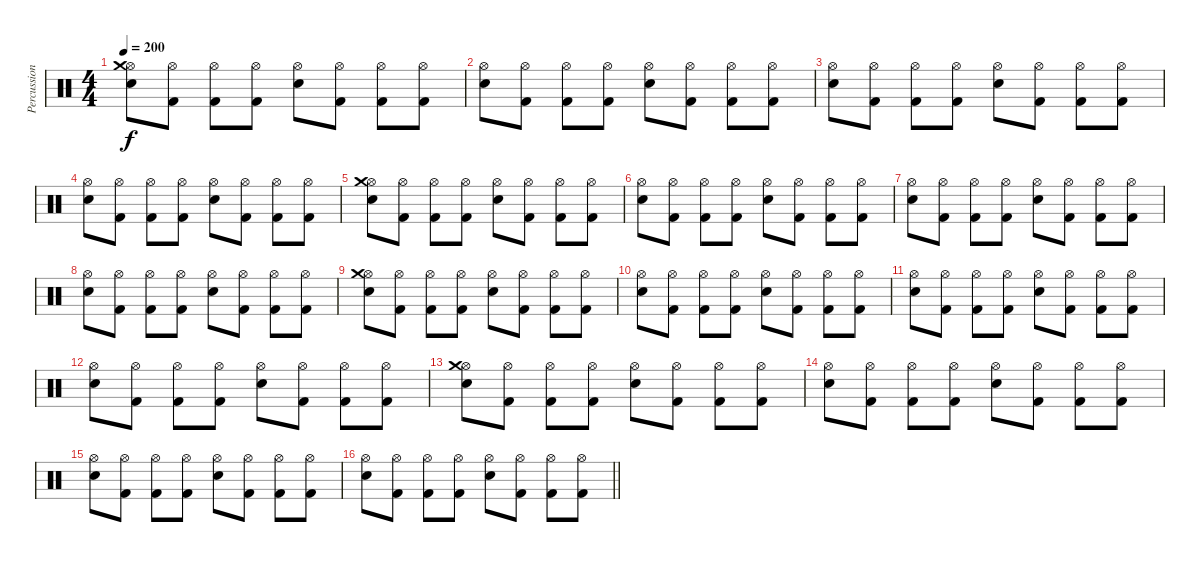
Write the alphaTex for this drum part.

\track ("Percussion" "Percussion") {instrument percussion}
\staff {score}
\articulation defaults
\ts (4 4)
\tempo 200
\clef neutral
\ks c
("Electric Snare (hit)" "Hi-Hat (open)" "Crash medium (hit)").8{dy f} ("Kick (hit) 2" "Hi-Hat (open)").8 ("Kick (hit) 2" "Hi-Hat (open)").8 ("Kick (hit) 2" "Hi-Hat (open)").8 ("Electric Snare (hit)" "Hi-Hat (open)").8 ("Kick (hit) 2" "Hi-Hat (open)").8 ("Kick (hit) 2" "Hi-Hat (open)").8 ("Kick (hit) 2" "Hi-Hat (open)").8 |
("Electric Snare (hit)" "Hi-Hat (open)").8 ("Kick (hit) 2" "Hi-Hat (open)").8 ("Kick (hit) 2" "Hi-Hat (open)").8 ("Kick (hit) 2" "Hi-Hat (open)").8 ("Electric Snare (hit)" "Hi-Hat (open)").8 ("Kick (hit) 2" "Hi-Hat (open)").8 ("Kick (hit) 2" "Hi-Hat (open)").8 ("Kick (hit) 2" "Hi-Hat (open)").8 |
("Electric Snare (hit)" "Hi-Hat (open)").8 ("Kick (hit) 2" "Hi-Hat (open)").8 ("Kick (hit) 2" "Hi-Hat (open)").8 ("Kick (hit) 2" "Hi-Hat (open)").8 ("Electric Snare (hit)" "Hi-Hat (open)").8 ("Kick (hit) 2" "Hi-Hat (open)").8 ("Kick (hit) 2" "Hi-Hat (open)").8 ("Kick (hit) 2" "Hi-Hat (open)").8 |
("Electric Snare (hit)" "Hi-Hat (open)").8 ("Kick (hit) 2" "Hi-Hat (open)").8 ("Kick (hit) 2" "Hi-Hat (open)").8 ("Kick (hit) 2" "Hi-Hat (open)").8 ("Electric Snare (hit)" "Hi-Hat (open)").8 ("Kick (hit) 2" "Hi-Hat (open)").8 ("Kick (hit) 2" "Hi-Hat (open)").8 ("Kick (hit) 2" "Hi-Hat (open)").8 |
("Electric Snare (hit)" "Hi-Hat (open)" "Crash medium (hit)").8 ("Kick (hit) 2" "Hi-Hat (open)").8 ("Kick (hit) 2" "Hi-Hat (open)").8 ("Kick (hit) 2" "Hi-Hat (open)").8 ("Electric Snare (hit)" "Hi-Hat (open)").8 ("Kick (hit) 2" "Hi-Hat (open)").8 ("Kick (hit) 2" "Hi-Hat (open)").8 ("Kick (hit) 2" "Hi-Hat (open)").8 |
("Electric Snare (hit)" "Hi-Hat (open)").8 ("Kick (hit) 2" "Hi-Hat (open)").8 ("Kick (hit) 2" "Hi-Hat (open)").8 ("Kick (hit) 2" "Hi-Hat (open)").8 ("Electric Snare (hit)" "Hi-Hat (open)").8 ("Kick (hit) 2" "Hi-Hat (open)").8 ("Kick (hit) 2" "Hi-Hat (open)").8 ("Kick (hit) 2" "Hi-Hat (open)").8 |
("Electric Snare (hit)" "Hi-Hat (open)").8 ("Kick (hit) 2" "Hi-Hat (open)").8 ("Kick (hit) 2" "Hi-Hat (open)").8 ("Kick (hit) 2" "Hi-Hat (open)").8 ("Electric Snare (hit)" "Hi-Hat (open)").8 ("Kick (hit) 2" "Hi-Hat (open)").8 ("Kick (hit) 2" "Hi-Hat (open)").8 ("Kick (hit) 2" "Hi-Hat (open)").8 |
("Electric Snare (hit)" "Hi-Hat (open)").8 ("Kick (hit) 2" "Hi-Hat (open)").8 ("Kick (hit) 2" "Hi-Hat (open)").8 ("Kick (hit) 2" "Hi-Hat (open)").8 ("Electric Snare (hit)" "Hi-Hat (open)").8 ("Kick (hit) 2" "Hi-Hat (open)").8 ("Kick (hit) 2" "Hi-Hat (open)").8 ("Kick (hit) 2" "Hi-Hat (open)").8 |
("Electric Snare (hit)" "Hi-Hat (open)" "Crash medium (hit)").8 ("Kick (hit) 2" "Hi-Hat (open)").8 ("Kick (hit) 2" "Hi-Hat (open)").8 ("Kick (hit) 2" "Hi-Hat (open)").8 ("Electric Snare (hit)" "Hi-Hat (open)").8 ("Kick (hit) 2" "Hi-Hat (open)").8 ("Kick (hit) 2" "Hi-Hat (open)").8 ("Kick (hit) 2" "Hi-Hat (open)").8 |
("Electric Snare (hit)" "Hi-Hat (open)").8 ("Kick (hit) 2" "Hi-Hat (open)").8 ("Kick (hit) 2" "Hi-Hat (open)").8 ("Kick (hit) 2" "Hi-Hat (open)").8 ("Electric Snare (hit)" "Hi-Hat (open)").8 ("Kick (hit) 2" "Hi-Hat (open)").8 ("Kick (hit) 2" "Hi-Hat (open)").8 ("Kick (hit) 2" "Hi-Hat (open)").8 |
("Electric Snare (hit)" "Hi-Hat (open)").8 ("Kick (hit) 2" "Hi-Hat (open)").8 ("Kick (hit) 2" "Hi-Hat (open)").8 ("Kick (hit) 2" "Hi-Hat (open)").8 ("Electric Snare (hit)" "Hi-Hat (open)").8 ("Kick (hit) 2" "Hi-Hat (open)").8 ("Kick (hit) 2" "Hi-Hat (open)").8 ("Kick (hit) 2" "Hi-Hat (open)").8 |
("Electric Snare (hit)" "Hi-Hat (open)").8 ("Kick (hit) 2" "Hi-Hat (open)").8 ("Kick (hit) 2" "Hi-Hat (open)").8 ("Kick (hit) 2" "Hi-Hat (open)").8 ("Electric Snare (hit)" "Hi-Hat (open)").8 ("Kick (hit) 2" "Hi-Hat (open)").8 ("Kick (hit) 2" "Hi-Hat (open)").8 ("Kick (hit) 2" "Hi-Hat (open)").8 |
("Electric Snare (hit)" "Hi-Hat (open)" "Crash medium (hit)").8 ("Kick (hit) 2" "Hi-Hat (open)").8 ("Kick (hit) 2" "Hi-Hat (open)").8 ("Kick (hit) 2" "Hi-Hat (open)").8 ("Electric Snare (hit)" "Hi-Hat (open)").8 ("Kick (hit) 2" "Hi-Hat (open)").8 ("Kick (hit) 2" "Hi-Hat (open)").8 ("Kick (hit) 2" "Hi-Hat (open)").8 |
("Electric Snare (hit)" "Hi-Hat (open)").8 ("Kick (hit) 2" "Hi-Hat (open)").8 ("Kick (hit) 2" "Hi-Hat (open)").8 ("Kick (hit) 2" "Hi-Hat (open)").8 ("Electric Snare (hit)" "Hi-Hat (open)").8 ("Kick (hit) 2" "Hi-Hat (open)").8 ("Kick (hit) 2" "Hi-Hat (open)").8 ("Kick (hit) 2" "Hi-Hat (open)").8 |
("Electric Snare (hit)" "Hi-Hat (open)").8 ("Kick (hit) 2" "Hi-Hat (open)").8 ("Kick (hit) 2" "Hi-Hat (open)").8 ("Kick (hit) 2" "Hi-Hat (open)").8 ("Electric Snare (hit)" "Hi-Hat (open)").8 ("Kick (hit) 2" "Hi-Hat (open)").8 ("Kick (hit) 2" "Hi-Hat (open)").8 ("Kick (hit) 2" "Hi-Hat (open)").8 |
\barLineRight lightlight
("Electric Snare (hit)" "Hi-Hat (open)").8 ("Kick (hit) 2" "Hi-Hat (open)").8 ("Kick (hit) 2" "Hi-Hat (open)").8 ("Kick (hit) 2" "Hi-Hat (open)").8 ("Electric Snare (hit)" "Hi-Hat (open)").8 ("Kick (hit) 2" "Hi-Hat (open)").8 ("Kick (hit) 2" "Hi-Hat (open)").8 ("Kick (hit) 2" "Hi-Hat (open)").8
